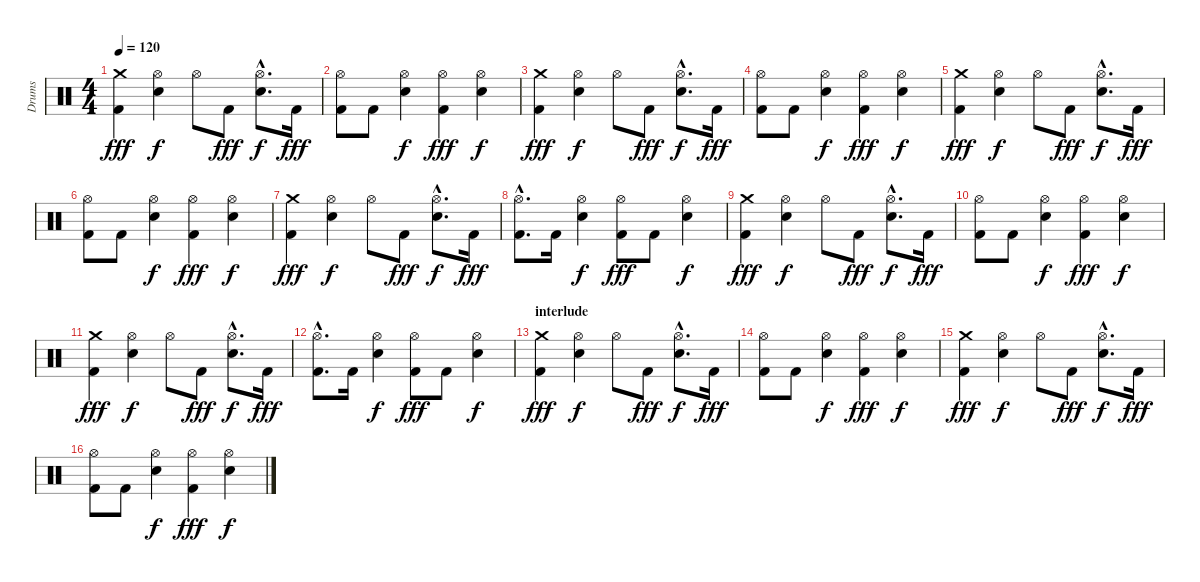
\track ("Drums" "Drums") {instrument percussion}
\staff {score}
\articulation defaults
\ts (4 4)
\tempo 120
\clef neutral
\ks c
("Crash medium (hit)" "Kick (hit) 2").4{dy fff} ("Hi-Hat (open)" "Electric Snare (hit)").4{dy f} "Hi-Hat (open)".8 "Kick (hit) 2".8{dy fff} ("Hi-Hat (open)"{hac} "Electric Snare (hit)"{hac}).8{d dy f} "Kick (hit) 2".16{dy fff} |
("Hi-Hat (open)" "Kick (hit) 2").8 "Kick (hit) 2".8 ("Hi-Hat (open)" "Electric Snare (hit)").4{dy f} ("Hi-Hat (open)" "Kick (hit) 2").4{dy fff} ("Hi-Hat (open)" "Electric Snare (hit)").4{dy f} |
("Crash medium (hit)" "Kick (hit) 2").4{dy fff} ("Hi-Hat (open)" "Electric Snare (hit)").4{dy f} "Hi-Hat (open)".8 "Kick (hit) 2".8{dy fff} ("Hi-Hat (open)"{hac} "Electric Snare (hit)"{hac}).8{d dy f} "Kick (hit) 2".16{dy fff} |
("Hi-Hat (open)" "Kick (hit) 2").8 "Kick (hit) 2".8 ("Hi-Hat (open)" "Electric Snare (hit)").4{dy f} ("Hi-Hat (open)" "Kick (hit) 2").4{dy fff} ("Hi-Hat (open)" "Electric Snare (hit)").4{dy f} |
("Crash medium (hit)" "Kick (hit) 2").4{dy fff} ("Hi-Hat (open)" "Electric Snare (hit)").4{dy f} "Hi-Hat (open)".8 "Kick (hit) 2".8{dy fff} ("Hi-Hat (open)"{hac} "Electric Snare (hit)"{hac}).8{d dy f} "Kick (hit) 2".16{dy fff} |
("Hi-Hat (open)" "Kick (hit) 2").8 "Kick (hit) 2".8 ("Hi-Hat (open)" "Electric Snare (hit)").4{dy f} ("Hi-Hat (open)" "Kick (hit) 2").4{dy fff} ("Hi-Hat (open)" "Electric Snare (hit)").4{dy f} |
("Crash medium (hit)" "Kick (hit) 2").4{dy fff} ("Hi-Hat (open)" "Electric Snare (hit)").4{dy f} "Hi-Hat (open)".8 "Kick (hit) 2".8{dy fff} ("Hi-Hat (open)"{hac} "Electric Snare (hit)"{hac}).8{d dy f} "Kick (hit) 2".16{dy fff} |
("Hi-Hat (open)"{hac} "Kick (hit) 2"{hac}).8{d} "Kick (hit) 2".16 ("Hi-Hat (open)" "Electric Snare (hit)").4{dy f} ("Hi-Hat (open)" "Kick (hit) 2").8{dy fff} "Kick (hit) 2".8 ("Hi-Hat (open)" "Electric Snare (hit)").4{dy f} |
("Crash medium (hit)" "Kick (hit) 2").4{dy fff} ("Hi-Hat (open)" "Electric Snare (hit)").4{dy f} "Hi-Hat (open)".8 "Kick (hit) 2".8{dy fff} ("Hi-Hat (open)"{hac} "Electric Snare (hit)"{hac}).8{d dy f} "Kick (hit) 2".16{dy fff} |
("Hi-Hat (open)" "Kick (hit) 2").8 "Kick (hit) 2".8 ("Hi-Hat (open)" "Electric Snare (hit)").4{dy f} ("Hi-Hat (open)" "Kick (hit) 2").4{dy fff} ("Hi-Hat (open)" "Electric Snare (hit)").4{dy f} |
("Crash medium (hit)" "Kick (hit) 2").4{dy fff} ("Hi-Hat (open)" "Electric Snare (hit)").4{dy f} "Hi-Hat (open)".8 "Kick (hit) 2".8{dy fff} ("Hi-Hat (open)"{hac} "Electric Snare (hit)"{hac}).8{d dy f} "Kick (hit) 2".16{dy fff} |
("Hi-Hat (open)"{hac} "Kick (hit) 2"{hac}).8{d} "Kick (hit) 2".16 ("Hi-Hat (open)" "Electric Snare (hit)").4{dy f} ("Hi-Hat (open)" "Kick (hit) 2").8{dy fff} "Kick (hit) 2".8 ("Hi-Hat (open)" "Electric Snare (hit)").4{dy f} |
\section ("" "interlude")
("Crash medium (hit)" "Kick (hit) 2").4{dy fff} ("Hi-Hat (open)" "Electric Snare (hit)").4{dy f} "Hi-Hat (open)".8 "Kick (hit) 2".8{dy fff} ("Hi-Hat (open)"{hac} "Electric Snare (hit)"{hac}).8{d dy f} "Kick (hit) 2".16{dy fff} |
("Hi-Hat (open)" "Kick (hit) 2").8 "Kick (hit) 2".8 ("Hi-Hat (open)" "Electric Snare (hit)").4{dy f} ("Hi-Hat (open)" "Kick (hit) 2").4{dy fff} ("Hi-Hat (open)" "Electric Snare (hit)").4{dy f} |
("Crash medium (hit)" "Kick (hit) 2").4{dy fff} ("Hi-Hat (open)" "Electric Snare (hit)").4{dy f} "Hi-Hat (open)".8 "Kick (hit) 2".8{dy fff} ("Hi-Hat (open)"{hac} "Electric Snare (hit)"{hac}).8{d dy f} "Kick (hit) 2".16{dy fff} |
("Hi-Hat (open)" "Kick (hit) 2").8 "Kick (hit) 2".8 ("Hi-Hat (open)" "Electric Snare (hit)").4{dy f} ("Hi-Hat (open)" "Kick (hit) 2").4{dy fff} ("Hi-Hat (open)" "Electric Snare (hit)").4{dy f}
